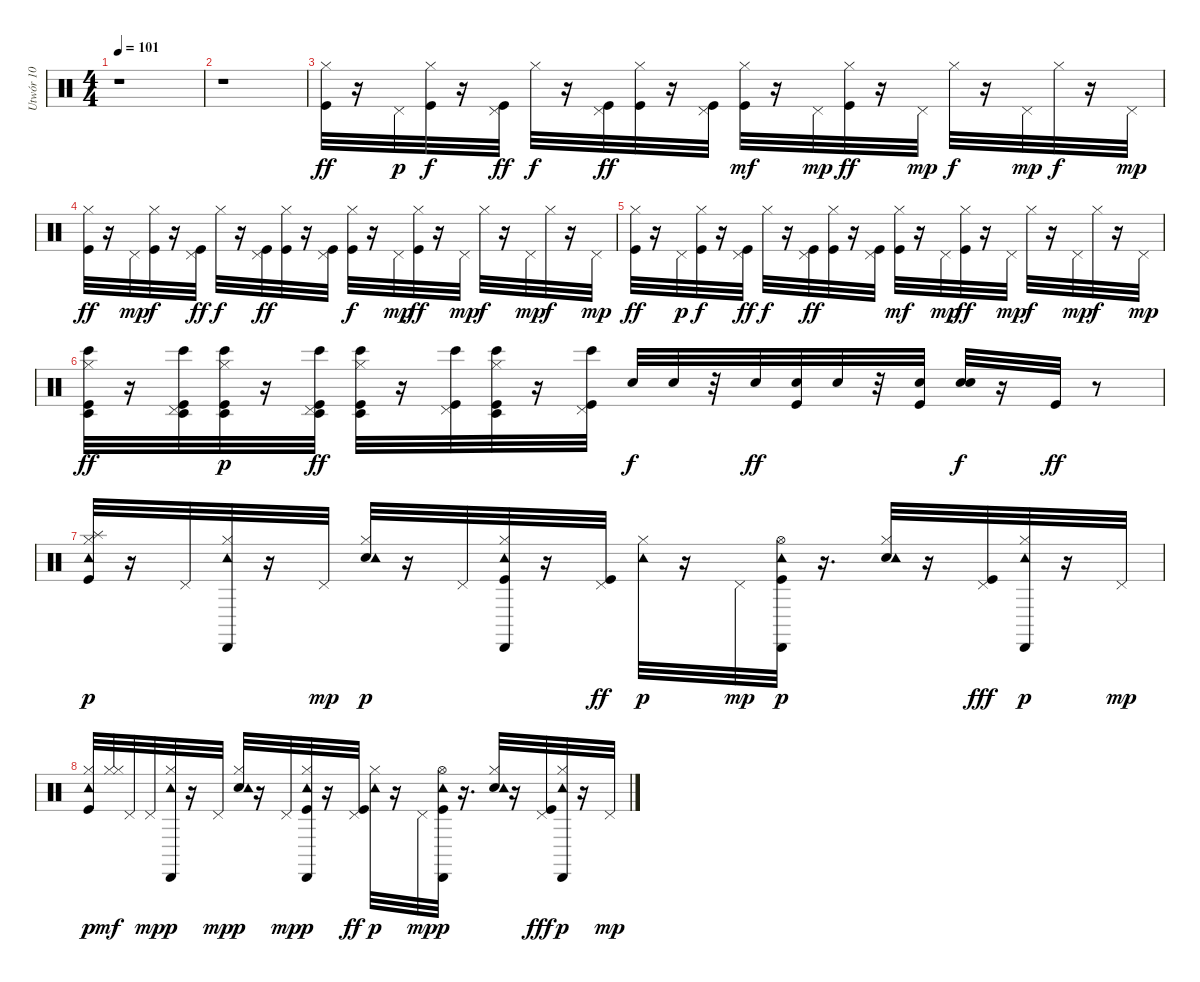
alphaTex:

\track ("Utwór 10" "Utwór 10") {instrument percussion}
\staff {score}
\articulation defaults
\ts (4 4)
\tempo 101
\clef neutral
\ks c
r.1{dy ff} |
r.1 |
("Hi-Hat (closed)" "Kick (hit)").32 r.16 "Pedal Hi-Hat (hit)".32{dy p} ("Hi-Hat (closed)" "Kick (hit)").32{dy f} r.16 ("Pedal Hi-Hat (hit)" "Kick (hit)").32{dy ff} "Hi-Hat (closed)".32{dy f} r.16 ("Pedal Hi-Hat (hit)" "Kick (hit)").32{dy ff} ("Hi-Hat (closed)" "Kick (hit)").32 r.16 ("Pedal Hi-Hat (hit)" "Kick (hit)").32 ("Hi-Hat (closed)" "Kick (hit)").32{dy mf} r.16 "Pedal Hi-Hat (hit)".32{dy mp} ("Hi-Hat (closed)" "Kick (hit)").32{dy ff} r.16 "Pedal Hi-Hat (hit)".32{dy mp} "Hi-Hat (closed)".32{dy f} r.16 "Pedal Hi-Hat (hit)".32{dy mp} "Hi-Hat (closed)".32{dy f} r.16 "Pedal Hi-Hat (hit)".32{dy mp} |
("Hi-Hat (closed)" "Kick (hit)").32{dy ff} r.16 "Pedal Hi-Hat (hit)".32{dy mp} ("Hi-Hat (closed)" "Kick (hit)").32{dy f} r.16 ("Pedal Hi-Hat (hit)" "Kick (hit)").32{dy ff} "Hi-Hat (closed)".32{dy f} r.16 ("Pedal Hi-Hat (hit)" "Kick (hit)").32{dy ff} ("Hi-Hat (closed)" "Kick (hit)").32 r.16 ("Pedal Hi-Hat (hit)" "Kick (hit)").32 ("Hi-Hat (closed)" "Kick (hit)").32{dy f} r.16 "Pedal Hi-Hat (hit)".32{dy mp} ("Hi-Hat (closed)" "Kick (hit)").32{dy ff} r.16 "Pedal Hi-Hat (hit)".32{dy mp} "Hi-Hat (closed)".32{dy f} r.16 "Pedal Hi-Hat (hit)".32{dy mp} "Hi-Hat (closed)".32{dy f} r.16 "Pedal Hi-Hat (hit)".32{dy mp} |
("Hi-Hat (closed)" "Kick (hit)").32{dy ff} r.16 "Pedal Hi-Hat (hit)".32{dy p} ("Hi-Hat (closed)" "Kick (hit)").32{dy f} r.16 ("Pedal Hi-Hat (hit)" "Kick (hit)").32{dy ff} "Hi-Hat (closed)".32{dy f} r.16 ("Pedal Hi-Hat (hit)" "Kick (hit)").32{dy ff} ("Hi-Hat (closed)" "Kick (hit)").32 r.16 ("Pedal Hi-Hat (hit)" "Kick (hit)").32 ("Hi-Hat (closed)" "Kick (hit)").32{dy mf} r.16 "Pedal Hi-Hat (hit)".32{dy mp} ("Hi-Hat (closed)" "Kick (hit)").32{dy ff} r.16 "Pedal Hi-Hat (hit)".32{dy mp} "Hi-Hat (closed)".32{dy f} r.16 "Pedal Hi-Hat (hit)".32{dy mp} "Hi-Hat (closed)".32{dy f} r.16 "Pedal Hi-Hat (hit)".32{dy mp} |
("Timbale low (hit)" "Bongo High (hit)" "Hi-Hat (closed)" "Kick (hit)").32{dy ff} r.16 ("Timbale low (hit)" "Bongo High (hit)" "Pedal Hi-Hat (hit)" "Kick (hit)").32 ("Timbale low (hit)" "Bongo High (hit)" "Hi-Hat (closed)" "Kick (hit)").32{dy p} r.16 ("Timbale low (hit)" "Bongo High (hit)" "Pedal Hi-Hat (hit)" "Kick (hit)").32{dy ff} ("Timbale low (hit)" "Bongo High (hit)" "Hi-Hat (closed)" "Kick (hit)").32 r.16 ("Bongo High (hit)" "Pedal Hi-Hat (hit)" "Kick (hit)").32 ("Timbale low (hit)" "Bongo High (hit)" "Hi-Hat (closed)" "Kick (hit)").32 r.16 ("Bongo High (hit)" "Pedal Hi-Hat (hit)" "Kick (hit)").32 "Electric Snare (hit)".32{dy f} "Electric Snare (hit)".32 r.32 "Electric Snare (hit)".32{dy ff} ("Electric Snare (hit)" "Kick (hit)").32 "Electric Snare (hit)".32 r.32 ("Electric Snare (hit)" "Kick (hit)").32 ("Electric Snare (hit)" "Snare (hit) 2").32{dy f} r.16 "Kick (hit)".32{dy ff} r.8 |
("Splash (hit)" "Hi-Hat (closed)" "Kick (hit)" "Tambourine (hit)").32{dy p} r.16 "Pedal Hi-Hat (hit)".32 ("Cabasa (hit)" "Hi-Hat (closed)" "Tambourine (hit)").32 r.16 "Pedal Hi-Hat (hit)".32{dy mp} ("Electric Snare (hit)" "Hi-Hat (closed)" "Tambourine (hit)").32{dy p} r.16 "Pedal Hi-Hat (hit)".32 ("Cabasa (hit)" "Hi-Hat (closed)" "Kick (hit)" "Tambourine (hit)").32 r.16 ("Pedal Hi-Hat (hit)" "Kick (hit)").32{dy ff} ("Hi-Hat (closed)" "Tambourine (hit)").32{dy p} r.16 "Pedal Hi-Hat (hit)".32{dy mp} ("Cabasa (hit)" "Hi-Hat (open)" "Kick (hit)" "Tambourine (hit)").32{dy p} r.16{d} ("Electric Snare (hit)" "Hi-Hat (closed)" "Tambourine (hit)").32 r.16 ("Pedal Hi-Hat (hit)" "Kick (hit)").32{dy fff} ("Cabasa (hit)" "Hi-Hat (closed)" "Tambourine (hit)").32{dy p} r.16 "Pedal Hi-Hat (hit)".32{dy mp} |
("Hi-Hat (closed)" "Kick (hit)" "Tambourine (hit)").32{dy p} ("Hi-Hat (closed)" "Hi-Hat (closed)").32{dy mf} "Pedal Hi-Hat (hit)".32 "Pedal Hi-Hat (hit)".32{dy mp} ("Cabasa (hit)" "Hi-Hat (closed)" "Tambourine (hit)").32{dy p} r.16 "Pedal Hi-Hat (hit)".32{dy mp} ("Electric Snare (hit)" "Hi-Hat (closed)" "Tambourine (hit)").32{dy p} r.16 "Pedal Hi-Hat (hit)".32{dy mp} ("Cabasa (hit)" "Hi-Hat (closed)" "Kick (hit)" "Tambourine (hit)").32{dy p} r.16 ("Pedal Hi-Hat (hit)" "Kick (hit)").32{dy ff} ("Hi-Hat (closed)" "Tambourine (hit)").32{dy p} r.16 "Pedal Hi-Hat (hit)".32{dy mp} ("Cabasa (hit)" "Hi-Hat (open)" "Kick (hit)" "Tambourine (hit)").32{dy p} r.16{d} ("Electric Snare (hit)" "Hi-Hat (closed)" "Tambourine (hit)").32 r.16 ("Pedal Hi-Hat (hit)" "Kick (hit)").32{dy fff} ("Cabasa (hit)" "Hi-Hat (closed)" "Tambourine (hit)").32{dy p} r.16 "Pedal Hi-Hat (hit)".32{dy mp}
